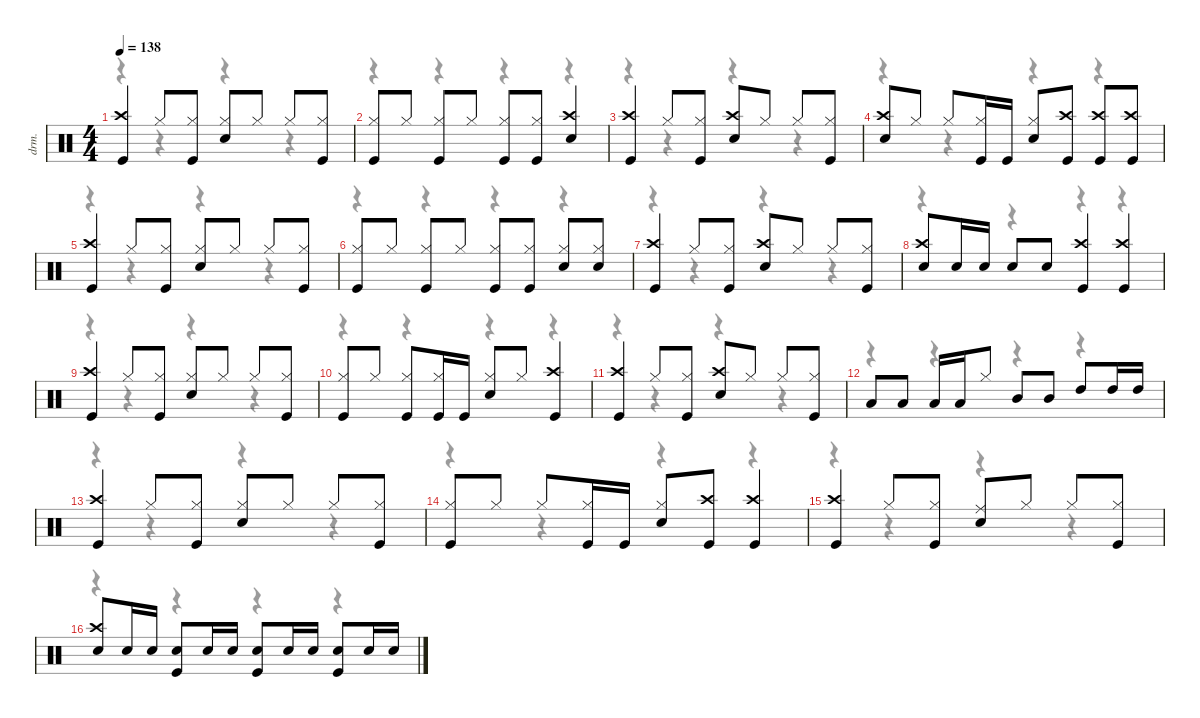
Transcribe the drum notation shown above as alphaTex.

\defaultSystemsLayout 4
\hideDynamics
\bracketExtendMode nobrackets
\track ("Drumkit" "drm.") {instrument percussion}
\staff {score}
\articulation defaults
\voice
\ts (4 4)
\tempo 138
\clef neutral
\ks c
("Kick (hit)" "Crash high (hit)").4{dy f} "Hi-Hat (closed)".8 ("Hi-Hat (closed)" "Kick (hit)").8 ("Snare (hit) 2" "Hi-Hat (closed)").8 "Hi-Hat (closed)".8 "Hi-Hat (closed)".8 ("Hi-Hat (closed)" "Kick (hit)").8 |
("Kick (hit)" "Hi-Hat (closed)").8 "Hi-Hat (closed)".8 ("Kick (hit)" "Hi-Hat (closed)").8 "Hi-Hat (closed)".8 ("Kick (hit)" "Hi-Hat (closed)").8 ("Kick (hit)" "Hi-Hat (closed)").8 ("Crash high (hit)" "Snare (hit) 2").4 |
("Kick (hit)" "Crash high (hit)").4 "Hi-Hat (closed)".8 ("Hi-Hat (closed)" "Kick (hit)").8 ("Crash high (hit)" "Snare (hit) 2").8 "Hi-Hat (closed)".8 "Hi-Hat (closed)".8 ("Hi-Hat (closed)" "Kick (hit)").8 |
("Snare (hit) 2" "Crash high (hit)").8 "Hi-Hat (closed)".8 "Hi-Hat (closed)".8 ("Kick (hit)" "Hi-Hat (closed)").16 "Kick (hit)".16 ("Hi-Hat (closed)" "Snare (hit) 2").8 ("Crash high (hit)" "Kick (hit)").8 ("Crash high (hit)" "Kick (hit)").8 ("Crash high (hit)" "Kick (hit)").8 |
("Kick (hit)" "Crash high (hit)").4 "Hi-Hat (closed)".8 ("Hi-Hat (closed)" "Kick (hit)").8 ("Snare (hit) 2" "Hi-Hat (closed)").8 "Hi-Hat (closed)".8 "Hi-Hat (closed)".8 ("Hi-Hat (closed)" "Kick (hit)").8 |
("Kick (hit)" "Hi-Hat (closed)").8 "Hi-Hat (closed)".8 ("Kick (hit)" "Hi-Hat (closed)").8 "Hi-Hat (closed)".8 ("Hi-Hat (closed)" "Kick (hit)").8 ("Hi-Hat (closed)" "Kick (hit)").8 ("Snare (hit) 2" "Hi-Hat (closed)").8 ("Snare (hit) 2" "Hi-Hat (closed)").8 |
("Kick (hit)" "Crash high (hit)").4 "Hi-Hat (closed)".8 ("Hi-Hat (closed)" "Kick (hit)").8 ("Crash high (hit)" "Snare (hit) 2").8 "Hi-Hat (closed)".8 "Hi-Hat (closed)".8 ("Kick (hit)" "Hi-Hat (closed)").8 |
("Snare (hit) 2" "Crash high (hit)").8 "Snare (hit) 2".16 "Snare (hit) 2".16 "Snare (hit) 2".8 "Snare (hit) 2".8 ("Crash high (hit)" "Kick (hit)").4 ("Crash high (hit)" "Kick (hit)").4 |
("Kick (hit)" "Crash high (hit)").4 "Hi-Hat (closed)".8 ("Kick (hit)" "Hi-Hat (closed)").8 ("Hi-Hat (closed)" "Snare (hit) 2").8 "Hi-Hat (closed)".8 "Hi-Hat (closed)".8 ("Kick (hit)" "Hi-Hat (closed)").8 |
("Hi-Hat (closed)" "Kick (hit)").8 "Hi-Hat (closed)".8 ("Hi-Hat (closed)" "Kick (hit)").8 ("Hi-Hat (closed)" "Kick (hit)").16 "Kick (hit)".16 ("Hi-Hat (closed)" "Snare (hit) 2").8 "Hi-Hat (closed)".8 ("Crash high (hit)" "Kick (hit)").4 |
("Kick (hit)" "Crash high (hit)").4 "Hi-Hat (closed)".8 ("Hi-Hat (closed)" "Kick (hit)").8 ("Crash high (hit)" "Snare (hit) 2").8 "Hi-Hat (closed)".8 "Hi-Hat (closed)".8 ("Kick (hit)" "Hi-Hat (closed)").8 |
"Low Tom (hit)".8 "Low Tom (hit)".8 "Low Tom (hit)".16 "Low Tom (hit)".16 "Hi-Hat (closed)".8 "Mid Tom (hit)".8 "Mid Tom (hit)".8 "High Tom (hit)".8 "High Tom (hit)".16 "High Tom (hit)".16 |
("Kick (hit)" "Crash high (hit)").4 "Hi-Hat (closed)".8 ("Hi-Hat (closed)" "Kick (hit)").8 ("Snare (hit) 2" "Hi-Hat (closed)").8 "Hi-Hat (closed)".8 "Hi-Hat (closed)".8 ("Hi-Hat (closed)" "Kick (hit)").8 |
("Kick (hit)" "Hi-Hat (closed)").8 "Hi-Hat (closed)".8 "Hi-Hat (closed)".8 ("Kick (hit)" "Hi-Hat (closed)").16 "Kick (hit)".16 ("Snare (hit) 2" "Hi-Hat (closed)").8 ("Crash high (hit)" "Kick (hit)").8 ("Crash high (hit)" "Kick (hit)").4 |
("Kick (hit)" "Crash high (hit)").4 "Hi-Hat (closed)".8 ("Hi-Hat (closed)" "Kick (hit)").8 ("Snare (hit) 2" "Ride (middle)").8 "Hi-Hat (closed)".8 "Hi-Hat (closed)".8 ("Kick (hit)" "Hi-Hat (closed)").8 |
("Crash high (hit)" "Snare (hit) 2").8 "Snare (hit) 2".16 "Snare (hit) 2".16 ("Kick (hit)" "Snare (hit) 2").8 "Snare (hit) 2".16 "Snare (hit) 2".16 ("Kick (hit)" "Snare (hit) 2").8 "Snare (hit) 2".16 "Snare (hit) 2".16 ("Kick (hit)" "Snare (hit) 2").8 "Snare (hit) 2".16 "Snare (hit) 2".16
\voice
\clef neutral
\ottava regular
\simile none
\ks c
r.4{dy mf} r.4 r.4 r.4 |
r.4 r.4 r.4 r.4 |
r.4 r.4 r.4 r.4 |
r.4 r.4 r.4 r.4 |
r.4 r.4 r.4 r.4 |
r.4 r.4 r.4 r.4 |
r.4 r.4 r.4 r.4 |
r.4 r.4 r.4 r.4 |
r.4 r.4 r.4 r.4 |
r.4 r.4 r.4 r.4 |
r.4 r.4 r.4 r.4 |
r.4 r.4 r.4 r.4 |
r.4 r.4 r.4 r.4 |
r.4 r.4 r.4 r.4 |
r.4 r.4 r.4 r.4 |
r.4 r.4 r.4 r.4
